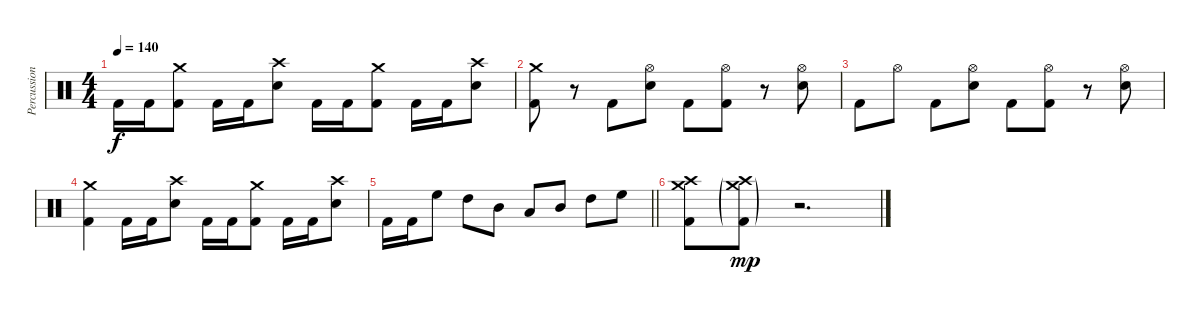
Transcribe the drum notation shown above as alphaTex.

\track ("Percussion" "Percussion") {instrument percussion}
\staff {score}
\articulation defaults
\ts (4 4)
\tempo 140
\clef neutral
\ks c "Kick (hit) 2".16{dy f} "Kick (hit) 2".16
("Crash medium (hit)" "Kick (hit) 2").8 "Kick (hit) 2".16 "Kick (hit) 2".16 ("Crash high (hit)" "Electric Snare (hit)").8 "Kick (hit) 2".16 "Kick (hit) 2".16 ("Crash medium (hit)" "Kick (hit) 2").8 "Kick (hit) 2".16 "Kick (hit) 2".16 ("Crash high (hit)" "Electric Snare (hit)").8 |
("Crash medium (hit)" "Kick (hit) 2").8 r.8 "Kick (hit) 2".8 ("Hi-Hat (open)" "Electric Snare (hit)").8 "Kick (hit) 2".8 ("Hi-Hat (open)" "Kick (hit) 2").8 r.8 ("Hi-Hat (open)" "Electric Snare (hit)").8 |
"Kick (hit) 2".8 "Hi-Hat (open)".8 "Kick (hit) 2".8 ("Hi-Hat (open)" "Electric Snare (hit)").8 "Kick (hit) 2".8 ("Hi-Hat (open)" "Kick (hit) 2").8 r.8 ("Hi-Hat (open)" "Electric Snare (hit)").8 |
("Crash medium (hit)" "Kick (hit) 2").4 "Kick (hit) 2".16 "Kick (hit) 2".16 ("Crash high (hit)" "Electric Snare (hit)").8 "Kick (hit) 2".16 "Kick (hit) 2".16 ("Crash medium (hit)" "Kick (hit) 2").8 "Kick (hit) 2".16 "Kick (hit) 2".16 ("Crash high (hit)" "Electric Snare (hit)").8 |
\barLineRight lightlight "Kick (hit) 2".16 "Kick (hit) 2".16 "High Floor Tom (hit)".8 "High Tom (hit)".8 "Mid Tom (hit)".8 "Low Tom (hit)".8 "Mid Tom (hit)".8 "High Tom (hit)".8 "High Floor Tom (hit)".8
|
("Crash medium (hit)" "Crash high (hit)" "Kick (hit) 2").8 ("Crash medium (hit)"{g} "Crash high (hit)"{g} "Kick (hit) 2"{g}).8{dy mp} r.2{d}
